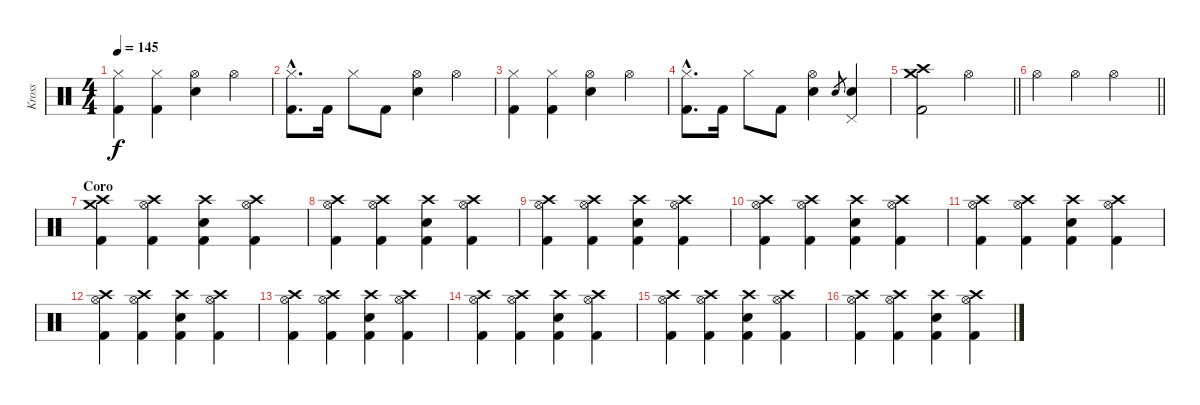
\track ("Kross" "Kross") {instrument percussion}
\staff {score}
\articulation defaults
\ts (4 4)
\tempo 145
\clef neutral
\ks c
("Hi-Hat (closed)" "Kick (hit) 2").4{dy f} ("Hi-Hat (closed)" "Kick (hit) 2").4 ("Hi-Hat (open)" "Electric Snare (hit)").4 "Hi-Hat (open)".4 |
("Hi-Hat (closed)"{hac} "Kick (hit) 2"{hac}).8{d} "Kick (hit) 2".16 "Hi-Hat (closed)".8 "Kick (hit) 2".8 ("Hi-Hat (open)" "Electric Snare (hit)").4 "Hi-Hat (open)".4 |
("Hi-Hat (closed)" "Kick (hit) 2").4 ("Hi-Hat (closed)" "Kick (hit) 2").4 ("Hi-Hat (open)" "Electric Snare (hit)").4 "Hi-Hat (open)".4 |
("Hi-Hat (closed)"{hac} "Kick (hit) 2"{hac}).8{d} "Kick (hit) 2".16 "Hi-Hat (closed)".8 "Kick (hit) 2".8 ("Hi-Hat (open)" "Electric Snare (hit)").4 "Electric Snare (hit)".8{gr} ("Pedal Hi-Hat (hit)" "Electric Snare (hit)").4 |
\barLineRight lightlight
("Crash medium (hit)" "Crash high (hit)" "Kick (hit) 2").2 "Hi-Hat (open)".2 |
\barLineRight lightlight "Hi-Hat (open)".4 "Hi-Hat (open)".4 "Hi-Hat (open)".2
|
\section ("" "Coro")
("Crash medium (hit)" "Crash high (hit)" "Kick (hit) 2").4 ("Crash high (hit)" "Hi-Hat (open)" "Kick (hit) 2").4 ("Crash high (hit)" "Electric Snare (hit)" "Kick (hit) 2").4 ("Crash high (hit)" "Hi-Hat (open)" "Kick (hit) 2").4 |
("Crash high (hit)" "Hi-Hat (open)" "Kick (hit) 2").4 ("Crash high (hit)" "Hi-Hat (open)" "Kick (hit) 2").4 ("Crash high (hit)" "Electric Snare (hit)" "Kick (hit) 2").4 ("Crash high (hit)" "Hi-Hat (open)" "Kick (hit) 2").4 |
("Crash high (hit)" "Hi-Hat (open)" "Kick (hit) 2").4 ("Crash high (hit)" "Hi-Hat (open)" "Kick (hit) 2").4 ("Crash high (hit)" "Electric Snare (hit)" "Kick (hit) 2").4 ("Crash high (hit)" "Hi-Hat (open)" "Kick (hit) 2").4 |
("Crash high (hit)" "Hi-Hat (open)" "Kick (hit) 2").4 ("Crash high (hit)" "Hi-Hat (open)" "Kick (hit) 2").4 ("Crash high (hit)" "Electric Snare (hit)" "Kick (hit) 2").4 ("Crash high (hit)" "Hi-Hat (open)" "Kick (hit) 2").4 |
("Crash high (hit)" "Hi-Hat (open)" "Kick (hit) 2").4 ("Crash high (hit)" "Hi-Hat (open)" "Kick (hit) 2").4 ("Crash high (hit)" "Electric Snare (hit)" "Kick (hit) 2").4 ("Crash high (hit)" "Hi-Hat (open)" "Kick (hit) 2").4 |
("Crash high (hit)" "Hi-Hat (open)" "Kick (hit) 2").4 ("Crash high (hit)" "Hi-Hat (open)" "Kick (hit) 2").4 ("Crash high (hit)" "Electric Snare (hit)" "Kick (hit) 2").4 ("Crash high (hit)" "Hi-Hat (open)" "Kick (hit) 2").4 |
("Crash high (hit)" "Hi-Hat (open)" "Kick (hit) 2").4 ("Crash high (hit)" "Hi-Hat (open)" "Kick (hit) 2").4 ("Crash high (hit)" "Electric Snare (hit)" "Kick (hit) 2").4 ("Crash high (hit)" "Hi-Hat (open)" "Kick (hit) 2").4 |
("Crash high (hit)" "Hi-Hat (open)" "Kick (hit) 2").4 ("Crash high (hit)" "Hi-Hat (open)" "Kick (hit) 2").4 ("Crash high (hit)" "Electric Snare (hit)" "Kick (hit) 2").4 ("Crash high (hit)" "Hi-Hat (open)" "Kick (hit) 2").4 |
("Crash high (hit)" "Hi-Hat (open)" "Kick (hit) 2").4 ("Crash high (hit)" "Hi-Hat (open)" "Kick (hit) 2").4 ("Crash high (hit)" "Electric Snare (hit)" "Kick (hit) 2").4 ("Crash high (hit)" "Hi-Hat (open)" "Kick (hit) 2").4 |
("Crash high (hit)" "Hi-Hat (open)" "Kick (hit) 2").4 ("Crash high (hit)" "Hi-Hat (open)" "Kick (hit) 2").4 ("Crash high (hit)" "Electric Snare (hit)" "Kick (hit) 2").4 ("Crash high (hit)" "Hi-Hat (open)" "Kick (hit) 2").4
